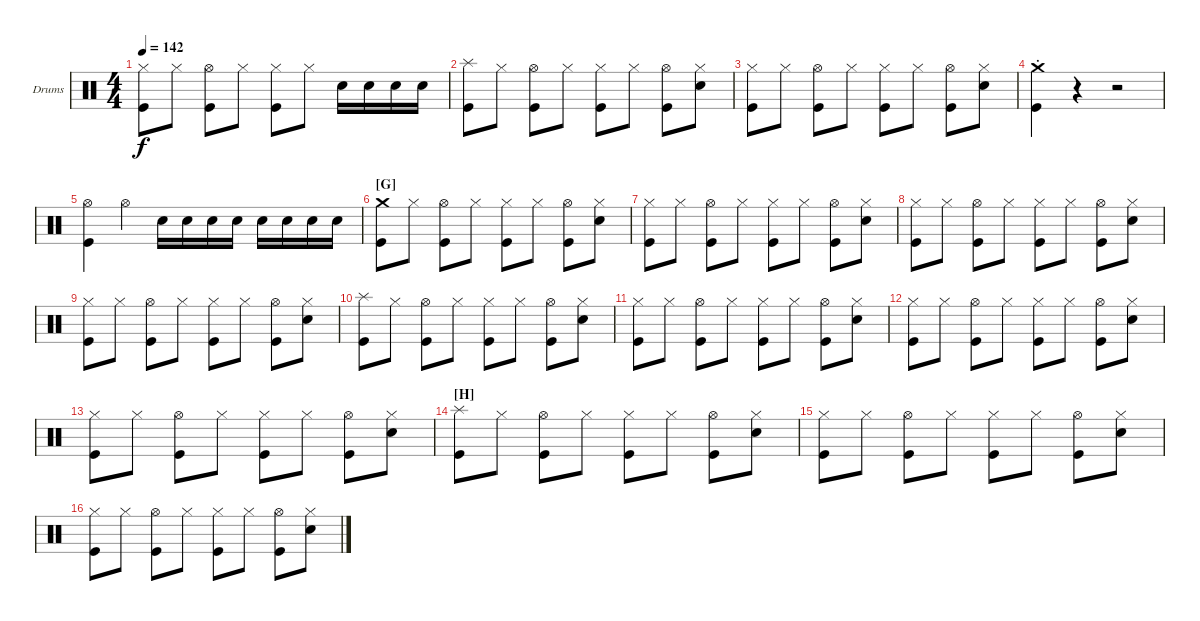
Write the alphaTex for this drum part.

\defaultSystemsLayout 4
\bracketExtendMode groupsimilarinstruments
\firstSystemTrackNameOrientation horizontal
\otherSystemsTrackNameOrientation horizontal
\track ("Drumkit" "Drums") {instrument percussion}
\staff {score}
\articulation defaults
\ts (4 4)
\tempo 142
\clef neutral
\ks c
("Kick (hit)" "Hi-Hat (closed)").8{dy f} "Hi-Hat (closed)".8 ("Hi-Hat (open)" "Kick (hit)").8 "Hi-Hat (closed)".8 ("Hi-Hat (closed)" "Kick (hit)").8 "Hi-Hat (closed)".8 "Snare (hit) 2".16 "Snare (hit) 2".16 "Snare (hit) 2".16 "Snare (hit) 2".16 |
("Kick (hit)" "Splash (hit)").8 "Hi-Hat (closed)".8 ("Hi-Hat (open)" "Kick (hit)").8 "Hi-Hat (closed)".8 ("Hi-Hat (closed)" "Kick (hit)").8 "Hi-Hat (closed)".8 ("Hi-Hat (open)" "Kick (hit)").8 ("Hi-Hat (closed)" "Snare (hit) 2").8 |
("Kick (hit)" "Hi-Hat (closed)").8 "Hi-Hat (closed)".8 ("Hi-Hat (open)" "Kick (hit)").8 "Hi-Hat (closed)".8 ("Hi-Hat (closed)" "Kick (hit)").8 "Hi-Hat (closed)".8 ("Hi-Hat (open)" "Kick (hit)").8 ("Hi-Hat (closed)" "Snare (hit) 2").8 |
("Crash medium (hit)" "Kick (hit)"{st}).4 r.4 r.2 |
("Kick (hit)" "Hi-Hat (open)").4 "Hi-Hat (open)".4 "Snare (hit) 2".16 "Snare (hit) 2".16 "Snare (hit) 2".16 "Snare (hit) 2".16 "Snare (hit) 2".16 "Snare (hit) 2".16 "Snare (hit) 2".16 "Snare (hit) 2".16 |
\section ("G" "")
("Kick (hit)" "Crash medium (hit)").8 "Hi-Hat (closed)".8 ("Hi-Hat (open)" "Kick (hit)").8 "Hi-Hat (closed)".8 ("Hi-Hat (closed)" "Kick (hit)").8 "Hi-Hat (closed)".8 ("Hi-Hat (open)" "Kick (hit)").8 ("Hi-Hat (closed)" "Snare (hit) 2").8 |
("Kick (hit)" "Hi-Hat (closed)").8 "Hi-Hat (closed)".8 ("Hi-Hat (open)" "Kick (hit)").8 "Hi-Hat (closed)".8 ("Hi-Hat (closed)" "Kick (hit)").8 "Hi-Hat (closed)".8 ("Hi-Hat (open)" "Kick (hit)").8 ("Hi-Hat (closed)" "Snare (hit) 2").8 |
("Kick (hit)" "Hi-Hat (closed)").8 "Hi-Hat (closed)".8 ("Hi-Hat (open)" "Kick (hit)").8 "Hi-Hat (closed)".8 ("Hi-Hat (closed)" "Kick (hit)").8 "Hi-Hat (closed)".8 ("Hi-Hat (open)" "Kick (hit)").8 ("Hi-Hat (closed)" "Snare (hit) 2").8 |
("Kick (hit)" "Hi-Hat (closed)").8 "Hi-Hat (closed)".8 ("Hi-Hat (open)" "Kick (hit)").8 "Hi-Hat (closed)".8 ("Hi-Hat (closed)" "Kick (hit)").8 "Hi-Hat (closed)".8 ("Hi-Hat (open)" "Kick (hit)").8 ("Hi-Hat (closed)" "Snare (hit) 2").8 |
("Kick (hit)" "Splash (hit)").8 "Hi-Hat (closed)".8 ("Hi-Hat (open)" "Kick (hit)").8 "Hi-Hat (closed)".8 ("Hi-Hat (closed)" "Kick (hit)").8 "Hi-Hat (closed)".8 ("Hi-Hat (open)" "Kick (hit)").8 ("Hi-Hat (closed)" "Snare (hit) 2").8 |
("Kick (hit)" "Hi-Hat (closed)").8 "Hi-Hat (closed)".8 ("Hi-Hat (open)" "Kick (hit)").8 "Hi-Hat (closed)".8 ("Hi-Hat (closed)" "Kick (hit)").8 "Hi-Hat (closed)".8 ("Hi-Hat (open)" "Kick (hit)").8 ("Hi-Hat (closed)" "Snare (hit) 2").8 |
("Kick (hit)" "Hi-Hat (closed)").8 "Hi-Hat (closed)".8 ("Hi-Hat (open)" "Kick (hit)").8 "Hi-Hat (closed)".8 ("Hi-Hat (closed)" "Kick (hit)").8 "Hi-Hat (closed)".8 ("Hi-Hat (open)" "Kick (hit)").8 ("Hi-Hat (closed)" "Snare (hit) 2").8 |
("Kick (hit)" "Hi-Hat (closed)").8 "Hi-Hat (closed)".8 ("Hi-Hat (open)" "Kick (hit)").8 "Hi-Hat (closed)".8 ("Hi-Hat (closed)" "Kick (hit)").8 "Hi-Hat (closed)".8 ("Hi-Hat (open)" "Kick (hit)").8 ("Hi-Hat (closed)" "Snare (hit) 2").8 |
\section ("H" "")
("Kick (hit)" "Splash (hit)").8 "Hi-Hat (closed)".8 ("Hi-Hat (open)" "Kick (hit)").8 "Hi-Hat (closed)".8 ("Hi-Hat (closed)" "Kick (hit)").8 "Hi-Hat (closed)".8 ("Hi-Hat (open)" "Kick (hit)").8 ("Hi-Hat (closed)" "Snare (hit) 2").8 |
("Kick (hit)" "Hi-Hat (closed)").8 "Hi-Hat (closed)".8 ("Hi-Hat (open)" "Kick (hit)").8 "Hi-Hat (closed)".8 ("Hi-Hat (closed)" "Kick (hit)").8 "Hi-Hat (closed)".8 ("Hi-Hat (open)" "Kick (hit)").8 ("Hi-Hat (closed)" "Snare (hit) 2").8 |
("Kick (hit)" "Hi-Hat (closed)").8 "Hi-Hat (closed)".8 ("Hi-Hat (open)" "Kick (hit)").8 "Hi-Hat (closed)".8 ("Hi-Hat (closed)" "Kick (hit)").8 "Hi-Hat (closed)".8 ("Hi-Hat (open)" "Kick (hit)").8 ("Hi-Hat (closed)" "Snare (hit) 2").8
